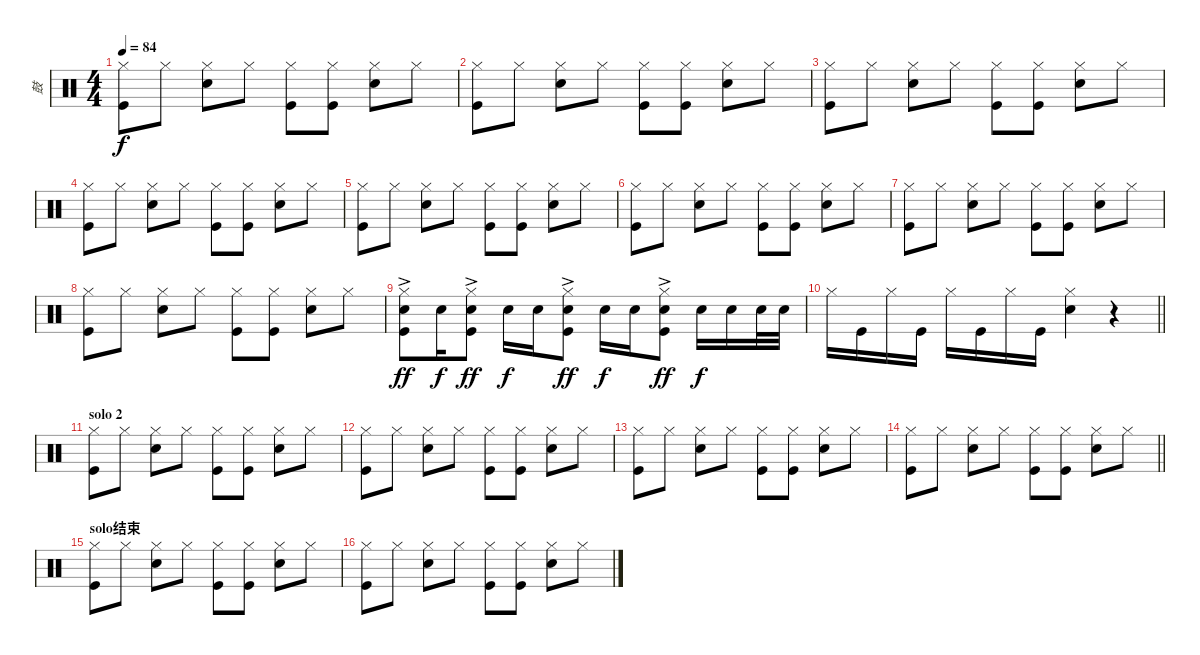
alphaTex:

\track ("鼓" "鼓") {instrument percussion}
\staff {score}
\articulation defaults
\ts (4 4)
\tempo 84
\clef neutral
\ks c
("Hi-Hat (closed)" "Kick (hit)").8{dy f} "Hi-Hat (closed)".8 ("Hi-Hat (closed)" "Snare (hit) 2").8 "Hi-Hat (closed)".8 ("Hi-Hat (closed)" "Kick (hit)").8 ("Hi-Hat (closed)" "Kick (hit)").8 ("Hi-Hat (closed)" "Snare (hit) 2").8 "Hi-Hat (closed)".8 |
("Hi-Hat (closed)" "Kick (hit)").8 "Hi-Hat (closed)".8 ("Hi-Hat (closed)" "Snare (hit) 2").8 "Hi-Hat (closed)".8 ("Hi-Hat (closed)" "Kick (hit)").8 ("Hi-Hat (closed)" "Kick (hit)").8 ("Hi-Hat (closed)" "Snare (hit) 2").8 "Hi-Hat (closed)".8 |
("Hi-Hat (closed)" "Kick (hit)").8 "Hi-Hat (closed)".8 ("Hi-Hat (closed)" "Snare (hit) 2").8 "Hi-Hat (closed)".8 ("Hi-Hat (closed)" "Kick (hit)").8 ("Hi-Hat (closed)" "Kick (hit)").8 ("Hi-Hat (closed)" "Snare (hit) 2").8 "Hi-Hat (closed)".8 |
("Hi-Hat (closed)" "Kick (hit)").8 "Hi-Hat (closed)".8 ("Hi-Hat (closed)" "Snare (hit) 2").8 "Hi-Hat (closed)".8 ("Hi-Hat (closed)" "Kick (hit)").8 ("Hi-Hat (closed)" "Kick (hit)").8 ("Hi-Hat (closed)" "Snare (hit) 2").8 "Hi-Hat (closed)".8 |
("Hi-Hat (closed)" "Kick (hit)").8 "Hi-Hat (closed)".8 ("Hi-Hat (closed)" "Snare (hit) 2").8 "Hi-Hat (closed)".8 ("Hi-Hat (closed)" "Kick (hit)").8 ("Hi-Hat (closed)" "Kick (hit)").8 ("Hi-Hat (closed)" "Snare (hit) 2").8 "Hi-Hat (closed)".8 |
("Hi-Hat (closed)" "Kick (hit)").8 "Hi-Hat (closed)".8 ("Hi-Hat (closed)" "Snare (hit) 2").8 "Hi-Hat (closed)".8 ("Hi-Hat (closed)" "Kick (hit)").8 ("Hi-Hat (closed)" "Kick (hit)").8 ("Hi-Hat (closed)" "Snare (hit) 2").8 "Hi-Hat (closed)".8 |
("Hi-Hat (closed)" "Kick (hit)").8 "Hi-Hat (closed)".8 ("Hi-Hat (closed)" "Snare (hit) 2").8 "Hi-Hat (closed)".8 ("Hi-Hat (closed)" "Kick (hit)").8 ("Hi-Hat (closed)" "Kick (hit)").8 ("Hi-Hat (closed)" "Snare (hit) 2").8 "Hi-Hat (closed)".8 |
("Hi-Hat (closed)" "Kick (hit)").8 "Hi-Hat (closed)".8 ("Hi-Hat (closed)" "Snare (hit) 2").8 "Hi-Hat (closed)".8 ("Hi-Hat (closed)" "Kick (hit)").8 ("Hi-Hat (closed)" "Kick (hit)").8 ("Hi-Hat (closed)" "Snare (hit) 2").8 "Hi-Hat (closed)".8 |
("Hi-Hat (closed)" "Snare (hit) 2" "Kick (hit)"{ac}).8{dy ff} "Snare (hit) 2".16{dy f} ("Hi-Hat (closed)" "Snare (hit) 2" "Kick (hit)"{ac}).8{dy ff} "Snare (hit) 2".16{dy f} "Snare (hit) 2".16 ("Hi-Hat (closed)" "Snare (hit) 2" "Kick (hit)"{ac}).8{dy ff} "Snare (hit) 2".16{dy f} "Snare (hit) 2".16 ("Hi-Hat (closed)" "Snare (hit) 2" "Kick (hit)"{ac}).8{dy ff} "Snare (hit) 2".16{dy f} "Snare (hit) 2".16 "Snare (hit) 2".32 "Snare (hit) 2".32 |
\barLineRight lightlight "Hi-Hat (closed)".16 "Kick (hit)".16 "Hi-Hat (closed)".16 "Kick (hit)".16 "Hi-Hat (closed)".16 "Kick (hit)".16 "Hi-Hat (closed)".16 "Kick (hit)".16
("Hi-Hat (closed)" "Snare (hit) 2").4 r.4 |
\section ("" "solo 2")
("Hi-Hat (closed)" "Kick (hit)").8 "Hi-Hat (closed)".8 ("Hi-Hat (closed)" "Snare (hit) 2").8 "Hi-Hat (closed)".8 ("Hi-Hat (closed)" "Kick (hit)").8 ("Hi-Hat (closed)" "Kick (hit)").8 ("Hi-Hat (closed)" "Snare (hit) 2").8 "Hi-Hat (closed)".8 |
("Hi-Hat (closed)" "Kick (hit)").8 "Hi-Hat (closed)".8 ("Hi-Hat (closed)" "Snare (hit) 2").8 "Hi-Hat (closed)".8 ("Hi-Hat (closed)" "Kick (hit)").8 ("Hi-Hat (closed)" "Kick (hit)").8 ("Hi-Hat (closed)" "Snare (hit) 2").8 "Hi-Hat (closed)".8 |
("Hi-Hat (closed)" "Kick (hit)").8 "Hi-Hat (closed)".8 ("Hi-Hat (closed)" "Snare (hit) 2").8 "Hi-Hat (closed)".8 ("Hi-Hat (closed)" "Kick (hit)").8 ("Hi-Hat (closed)" "Kick (hit)").8 ("Hi-Hat (closed)" "Snare (hit) 2").8 "Hi-Hat (closed)".8 |
\barLineRight lightlight
("Hi-Hat (closed)" "Kick (hit)").8 "Hi-Hat (closed)".8 ("Hi-Hat (closed)" "Snare (hit) 2").8 "Hi-Hat (closed)".8 ("Hi-Hat (closed)" "Kick (hit)").8 ("Hi-Hat (closed)" "Kick (hit)").8 ("Hi-Hat (closed)" "Snare (hit) 2").8 "Hi-Hat (closed)".8 |
\section ("" "solo结束")
("Hi-Hat (closed)" "Kick (hit)").8 "Hi-Hat (closed)".8 ("Hi-Hat (closed)" "Snare (hit) 2").8 "Hi-Hat (closed)".8 ("Hi-Hat (closed)" "Kick (hit)").8 ("Hi-Hat (closed)" "Kick (hit)").8 ("Hi-Hat (closed)" "Snare (hit) 2").8 "Hi-Hat (closed)".8 |
("Hi-Hat (closed)" "Kick (hit)").8 "Hi-Hat (closed)".8 ("Hi-Hat (closed)" "Snare (hit) 2").8 "Hi-Hat (closed)".8 ("Hi-Hat (closed)" "Kick (hit)").8 ("Hi-Hat (closed)" "Kick (hit)").8 ("Hi-Hat (closed)" "Snare (hit) 2").8 "Hi-Hat (closed)".8
